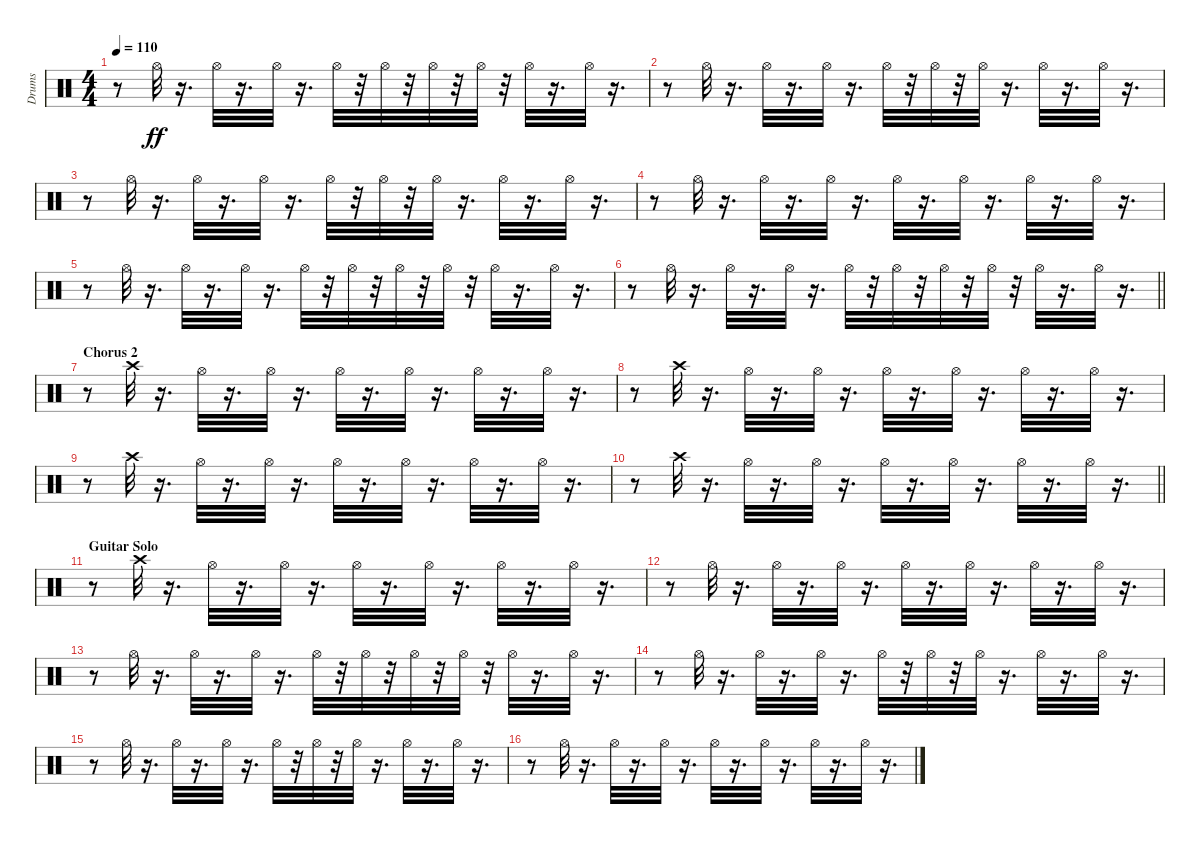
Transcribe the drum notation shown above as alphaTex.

\track ("Drums" "Drums") {instrument percussion}
\staff {score}
\articulation defaults
\ts (4 4)
\tempo 110
\clef neutral
\ks c
r.8{dy ff} "Hi-Hat (open)".32 r.16{d} "Hi-Hat (open)".32 r.16{d} "Hi-Hat (open)".32 r.16{d} "Hi-Hat (open)".32 r.32 "Hi-Hat (open)".32 r.32 "Hi-Hat (open)".32 r.32 "Hi-Hat (open)".32 r.32 "Hi-Hat (open)".32 r.16{d} "Hi-Hat (open)".32 r.16{d} |
r.8 "Hi-Hat (open)".32 r.16{d} "Hi-Hat (open)".32 r.16{d} "Hi-Hat (open)".32 r.16{d} "Hi-Hat (open)".32 r.32 "Hi-Hat (open)".32 r.32 "Hi-Hat (open)".32 r.16{d} "Hi-Hat (open)".32 r.16{d} "Hi-Hat (open)".32 r.16{d} |
r.8 "Hi-Hat (open)".32 r.16{d} "Hi-Hat (open)".32 r.16{d} "Hi-Hat (open)".32 r.16{d} "Hi-Hat (open)".32 r.32 "Hi-Hat (open)".32 r.32 "Hi-Hat (open)".32 r.16{d} "Hi-Hat (open)".32 r.16{d} "Hi-Hat (open)".32 r.16{d} |
r.8 "Hi-Hat (open)".32 r.16{d} "Hi-Hat (open)".32 r.16{d} "Hi-Hat (open)".32 r.16{d} "Hi-Hat (open)".32 r.16{d} "Hi-Hat (open)".32 r.16{d} "Hi-Hat (open)".32 r.16{d} "Hi-Hat (open)".32 r.16{d} |
r.8 "Hi-Hat (open)".32 r.16{d} "Hi-Hat (open)".32 r.16{d} "Hi-Hat (open)".32 r.16{d} "Hi-Hat (open)".32 r.32 "Hi-Hat (open)".32 r.32 "Hi-Hat (open)".32 r.32 "Hi-Hat (open)".32 r.32 "Hi-Hat (open)".32 r.16{d} "Hi-Hat (open)".32 r.16{d} |
\barLineRight lightlight
r.8 "Hi-Hat (open)".32 r.16{d} "Hi-Hat (open)".32 r.16{d} "Hi-Hat (open)".32 r.16{d} "Hi-Hat (open)".32 r.32 "Hi-Hat (open)".32 r.32 "Hi-Hat (open)".32 r.32 "Hi-Hat (open)".32 r.32 "Hi-Hat (open)".32 r.16{d} "Hi-Hat (open)".32 r.16{d} |
\section ("" "Chorus 2")
r.8 "Crash high (hit)".32 r.16{d} "Hi-Hat (open)".32 r.16{d} "Hi-Hat (open)".32 r.16{d} "Hi-Hat (open)".32 r.16{d} "Hi-Hat (open)".32 r.16{d} "Hi-Hat (open)".32 r.16{d} "Hi-Hat (open)".32 r.16{d} |
r.8 "Crash high (hit)".32 r.16{d} "Hi-Hat (open)".32 r.16{d} "Hi-Hat (open)".32 r.16{d} "Hi-Hat (open)".32 r.16{d} "Hi-Hat (open)".32 r.16{d} "Hi-Hat (open)".32 r.16{d} "Hi-Hat (open)".32 r.16{d} |
r.8 "Crash high (hit)".32 r.16{d} "Hi-Hat (open)".32 r.16{d} "Hi-Hat (open)".32 r.16{d} "Hi-Hat (open)".32 r.16{d} "Hi-Hat (open)".32 r.16{d} "Hi-Hat (open)".32 r.16{d} "Hi-Hat (open)".32 r.16{d} |
\barLineRight lightlight
r.8 "Crash high (hit)".32 r.16{d} "Hi-Hat (open)".32 r.16{d} "Hi-Hat (open)".32 r.16{d} "Hi-Hat (open)".32 r.16{d} "Hi-Hat (open)".32 r.16{d} "Hi-Hat (open)".32 r.16{d} "Hi-Hat (open)".32 r.16{d} |
\section ("" "Guitar Solo")
r.8 "Crash high (hit)".32 r.16{d} "Hi-Hat (open)".32 r.16{d} "Hi-Hat (open)".32 r.16{d} "Hi-Hat (open)".32 r.16{d} "Hi-Hat (open)".32 r.16{d} "Hi-Hat (open)".32 r.16{d} "Hi-Hat (open)".32 r.16{d} |
r.8 "Hi-Hat (open)".32 r.16{d} "Hi-Hat (open)".32 r.16{d} "Hi-Hat (open)".32 r.16{d} "Hi-Hat (open)".32 r.16{d} "Hi-Hat (open)".32 r.16{d} "Hi-Hat (open)".32 r.16{d} "Hi-Hat (open)".32 r.16{d} |
r.8 "Hi-Hat (open)".32 r.16{d} "Hi-Hat (open)".32 r.16{d} "Hi-Hat (open)".32 r.16{d} "Hi-Hat (open)".32 r.32 "Hi-Hat (open)".32 r.32 "Hi-Hat (open)".32 r.32 "Hi-Hat (open)".32 r.32 "Hi-Hat (open)".32 r.16{d} "Hi-Hat (open)".32 r.16{d} |
r.8 "Hi-Hat (open)".32 r.16{d} "Hi-Hat (open)".32 r.16{d} "Hi-Hat (open)".32 r.16{d} "Hi-Hat (open)".32 r.32 "Hi-Hat (open)".32 r.32 "Hi-Hat (open)".32 r.16{d} "Hi-Hat (open)".32 r.16{d} "Hi-Hat (open)".32 r.16{d} |
r.8 "Hi-Hat (open)".32 r.16{d} "Hi-Hat (open)".32 r.16{d} "Hi-Hat (open)".32 r.16{d} "Hi-Hat (open)".32 r.32 "Hi-Hat (open)".32 r.32 "Hi-Hat (open)".32 r.16{d} "Hi-Hat (open)".32 r.16{d} "Hi-Hat (open)".32 r.16{d} |
r.8 "Hi-Hat (open)".32 r.16{d} "Hi-Hat (open)".32 r.16{d} "Hi-Hat (open)".32 r.16{d} "Hi-Hat (open)".32 r.16{d} "Hi-Hat (open)".32 r.16{d} "Hi-Hat (open)".32 r.16{d} "Hi-Hat (open)".32 r.16{d}
